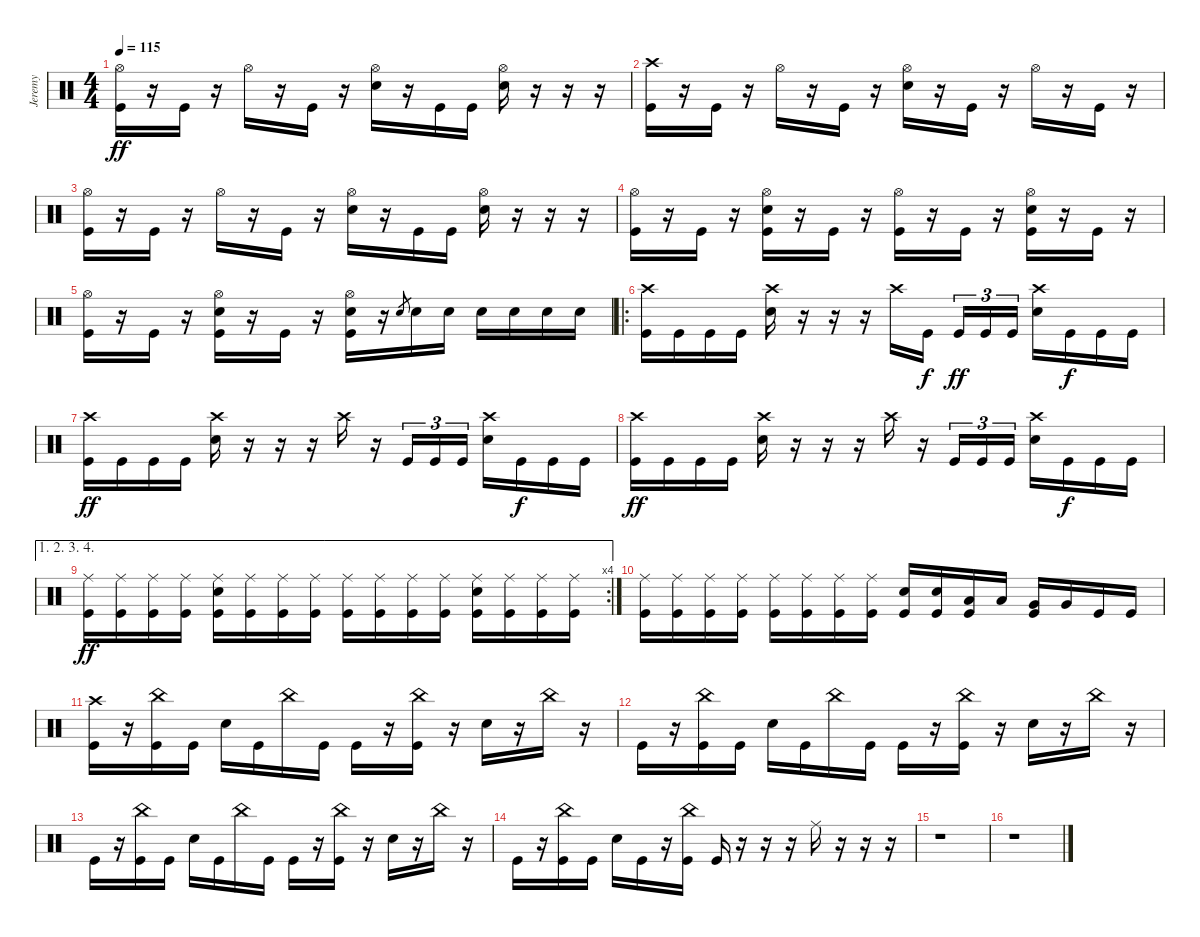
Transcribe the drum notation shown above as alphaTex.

\track ("Jeremy" "Jeremy") {instrument percussion}
\staff {score}
\articulation defaults
\ts (4 4)
\tempo 115
\clef neutral
\ks c
("Hi-Hat (open)" "Kick (hit)").16{dy ff} r.16 "Kick (hit)".16 r.16 "Hi-Hat (open)".16 r.16 "Kick (hit)".16 r.16 ("Hi-Hat (open)" "Electric Snare (hit)").16 r.16 "Kick (hit)".16 "Kick (hit)".16 ("Hi-Hat (open)" "Electric Snare (hit)").16 r.16 r.16 r.16 |
("Crash high (hit)" "Kick (hit)").16 r.16 "Kick (hit)".16 r.16 "Hi-Hat (open)".16 r.16 "Kick (hit)".16 r.16 ("Hi-Hat (open)" "Electric Snare (hit)").16 r.16 "Kick (hit)".16 r.16 "Hi-Hat (open)".16 r.16 "Kick (hit)".16 r.16 |
("Hi-Hat (open)" "Kick (hit)").16 r.16 "Kick (hit)".16 r.16 "Hi-Hat (open)".16 r.16 "Kick (hit)".16 r.16 ("Hi-Hat (open)" "Electric Snare (hit)").16 r.16 "Kick (hit)".16 "Kick (hit)".16 ("Hi-Hat (open)" "Electric Snare (hit)").16 r.16 r.16 r.16 |
("Hi-Hat (open)" "Kick (hit)").16 r.16 "Kick (hit)".16 r.16 ("Hi-Hat (open)" "Electric Snare (hit)" "Kick (hit)").16 r.16 "Kick (hit)".16 r.16 ("Hi-Hat (open)" "Kick (hit)").16 r.16 "Kick (hit)".16 r.16 ("Hi-Hat (open)" "Electric Snare (hit)" "Kick (hit)").16 r.16 "Kick (hit)".16 r.16 |
("Hi-Hat (open)" "Kick (hit)").16 r.16 "Kick (hit)".16 r.16 ("Hi-Hat (open)" "Electric Snare (hit)" "Kick (hit)").16 r.16 "Kick (hit)".16 r.16 ("Hi-Hat (open)" "Electric Snare (hit)" "Kick (hit)").16 r.16 "Electric Snare (hit)".8{gr} "Electric Snare (hit)".16 "Electric Snare (hit)".16 "Electric Snare (hit)".16 "Electric Snare (hit)".16 "Electric Snare (hit)".16 "Electric Snare (hit)".16 |
\ro
("Crash high (hit)" "Kick (hit)").16 "Kick (hit)".16 "Kick (hit)".16 "Kick (hit)".16 ("Crash high (hit)" "Electric Snare (hit)").16 r.16 r.16 r.16 "Crash high (hit)".16 "Kick (hit)".16{dy f beam splitsecondary} "Kick (hit)".16{tu (3 2) dy ff} "Kick (hit)".16{tu (3 2)} "Kick (hit)".16{tu (3 2)} ("Crash high (hit)" "Electric Snare (hit)").16 "Kick (hit)".16{dy f} "Kick (hit)".16 "Kick (hit)".16 |
("Crash high (hit)" "Kick (hit)").16{dy ff} "Kick (hit)".16 "Kick (hit)".16 "Kick (hit)".16 ("Crash high (hit)" "Electric Snare (hit)").16 r.16 r.16 r.16 "Crash high (hit)".16 r.16 "Kick (hit)".16{tu (3 2)} "Kick (hit)".16{tu (3 2)} "Kick (hit)".16{tu (3 2)} ("Crash high (hit)" "Electric Snare (hit)").16 "Kick (hit)".16{dy f} "Kick (hit)".16 "Kick (hit)".16 |
("Crash high (hit)" "Kick (hit)").16{dy ff} "Kick (hit)".16 "Kick (hit)".16 "Kick (hit)".16 ("Crash high (hit)" "Electric Snare (hit)").16 r.16 r.16 r.16 "Crash high (hit)".16 r.16 "Kick (hit)".16{tu (3 2)} "Kick (hit)".16{tu (3 2)} "Kick (hit)".16{tu (3 2)} ("Crash high (hit)" "Electric Snare (hit)").16 "Kick (hit)".16{dy f} "Kick (hit)".16 "Kick (hit)".16 |
\ae (1 2 3 4)
\rc 4
("Ride (middle)" "Kick (hit)").16{dy ff} ("Ride (middle)" "Kick (hit)").16 ("Ride (middle)" "Kick (hit)").16 ("Ride (middle)" "Kick (hit)").16 ("Ride (middle)" "Electric Snare (hit)" "Kick (hit)").16 ("Ride (middle)" "Kick (hit)").16 ("Ride (middle)" "Kick (hit)").16 ("Ride (middle)" "Kick (hit)").16 ("Ride (middle)" "Kick (hit)").16 ("Ride (middle)" "Kick (hit)").16 ("Ride (middle)" "Kick (hit)").16 ("Ride (middle)" "Kick (hit)").16 ("Ride (middle)" "Electric Snare (hit)" "Kick (hit)").16 ("Ride (middle)" "Kick (hit)").16 ("Ride (middle)" "Kick (hit)").16 ("Ride (middle)" "Kick (hit)").16 |
("Ride (middle)" "Kick (hit)").16 ("Ride (middle)" "Kick (hit)").16 ("Ride (middle)" "Kick (hit)").16 ("Ride (middle)" "Kick (hit)").16 ("Ride (middle)" "Kick (hit)").16 ("Ride (middle)" "Kick (hit)").16 ("Ride (middle)" "Kick (hit)").16 ("Ride (middle)" "Kick (hit)").16 ("Electric Snare (hit)" "Kick (hit)").16 ("Electric Snare (hit)" "Kick (hit)").16 ("Low Tom (hit)" "Kick (hit)").16 "Low Tom (hit)".16 ("Very Low Tom (hit)" "Kick (hit)").16 "Very Low Tom (hit)".16 "Kick (hit)".16 "Kick (hit)".16 |
("Crash high (hit)" "Kick (hit)").16 r.16 ("China (hit)" "Kick (hit)").16 "Kick (hit)".16 "Electric Snare (hit)".16 "Kick (hit)".16 "China (hit)".16 "Kick (hit)".16 "Kick (hit)".16 r.16 ("China (hit)" "Kick (hit)").16 r.16 "Electric Snare (hit)".16 r.16 "China (hit)".16 r.16 |
"Kick (hit)".16 r.16 ("China (hit)" "Kick (hit)").16 "Kick (hit)".16 "Electric Snare (hit)".16 "Kick (hit)".16 "China (hit)".16 "Kick (hit)".16 "Kick (hit)".16 r.16 ("China (hit)" "Kick (hit)").16 r.16 "Electric Snare (hit)".16 r.16 "China (hit)".16 r.16 |
"Kick (hit)".16 r.16 ("China (hit)" "Kick (hit)").16 "Kick (hit)".16 "Electric Snare (hit)".16 "Kick (hit)".16 "China (hit)".16 "Kick (hit)".16 "Kick (hit)".16 r.16 ("China (hit)" "Kick (hit)").16 r.16 "Electric Snare (hit)".16 r.16 "China (hit)".16 r.16 |
"Kick (hit)".16 r.16 ("China (hit)" "Kick (hit)").16 "Kick (hit)".16 "Electric Snare (hit)".16 "Kick (hit)".16 r.16 ("China (hit)" "Kick (hit)").16 "Kick (hit)".16 r.16 r.16 r.16 "Ride (middle)".16 r.16 r.16 r.16 |
r.1 |
r.1
